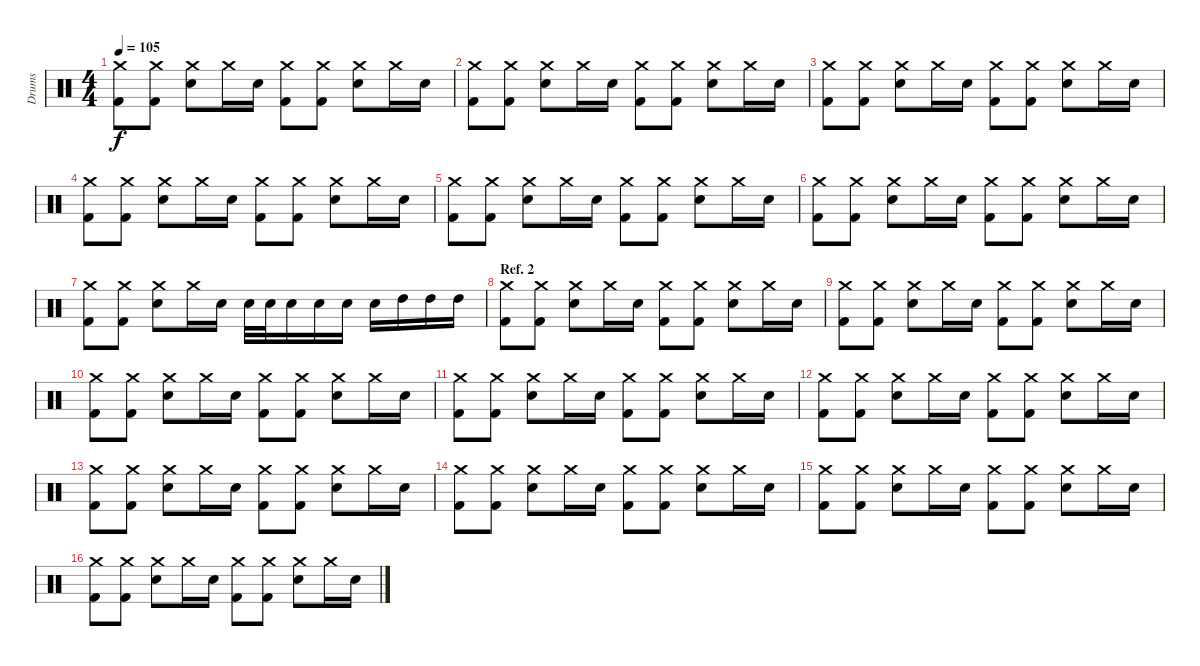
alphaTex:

\track ("Drums" "Drums") {instrument percussion}
\staff {score}
\articulation defaults
\ts (4 4)
\tempo 105
\clef neutral
\ks c
("Kick (hit) 2" "Crash medium (hit)").8{dy f} ("Crash medium (hit)" "Kick (hit) 2").8 ("Crash medium (hit)" "Snare (hit) 2").8 "Crash medium (hit)".16 "Snare (hit) 2".16 ("Crash medium (hit)" "Kick (hit) 2").8 ("Crash medium (hit)" "Kick (hit) 2").8 ("Crash medium (hit)" "Snare (hit) 2").8 "Crash medium (hit)".16 "Snare (hit) 2".16 |
("Kick (hit) 2" "Crash medium (hit)").8 ("Crash medium (hit)" "Kick (hit) 2").8 ("Crash medium (hit)" "Snare (hit) 2").8 "Crash medium (hit)".16 "Snare (hit) 2".16 ("Crash medium (hit)" "Kick (hit) 2").8 ("Crash medium (hit)" "Kick (hit) 2").8 ("Crash medium (hit)" "Snare (hit) 2").8 "Crash medium (hit)".16 "Snare (hit) 2".16 |
("Kick (hit) 2" "Crash medium (hit)").8 ("Crash medium (hit)" "Kick (hit) 2").8 ("Crash medium (hit)" "Snare (hit) 2").8 "Crash medium (hit)".16 "Snare (hit) 2".16 ("Crash medium (hit)" "Kick (hit) 2").8 ("Crash medium (hit)" "Kick (hit) 2").8 ("Crash medium (hit)" "Snare (hit) 2").8 "Crash medium (hit)".16 "Snare (hit) 2".16 |
("Kick (hit) 2" "Crash medium (hit)").8 ("Crash medium (hit)" "Kick (hit) 2").8 ("Crash medium (hit)" "Snare (hit) 2").8 "Crash medium (hit)".16 "Snare (hit) 2".16 ("Crash medium (hit)" "Kick (hit) 2").8 ("Crash medium (hit)" "Kick (hit) 2").8 ("Crash medium (hit)" "Snare (hit) 2").8 "Crash medium (hit)".16 "Snare (hit) 2".16 |
("Kick (hit) 2" "Crash medium (hit)").8 ("Crash medium (hit)" "Kick (hit) 2").8 ("Crash medium (hit)" "Snare (hit) 2").8 "Crash medium (hit)".16 "Snare (hit) 2".16 ("Crash medium (hit)" "Kick (hit) 2").8 ("Crash medium (hit)" "Kick (hit) 2").8 ("Crash medium (hit)" "Snare (hit) 2").8 "Crash medium (hit)".16 "Snare (hit) 2".16 |
("Kick (hit) 2" "Crash medium (hit)").8 ("Crash medium (hit)" "Kick (hit) 2").8 ("Crash medium (hit)" "Snare (hit) 2").8 "Crash medium (hit)".16 "Snare (hit) 2".16 ("Crash medium (hit)" "Kick (hit) 2").8 ("Crash medium (hit)" "Kick (hit) 2").8 ("Crash medium (hit)" "Snare (hit) 2").8 "Crash medium (hit)".16 "Snare (hit) 2".16 |
("Kick (hit) 2" "Crash medium (hit)").8 ("Crash medium (hit)" "Kick (hit) 2").8 ("Crash medium (hit)" "Snare (hit) 2").8 "Crash medium (hit)".16 "Snare (hit) 2".16 "Snare (hit) 2".32 "Snare (hit) 2".32 "Snare (hit) 2".16 "Snare (hit) 2".16 "Snare (hit) 2".16 "Snare (hit) 2".16 "High Tom (hit)".16 "High Tom (hit)".16 "High Tom (hit)".16 |
\section ("" "Ref. 2")
("Kick (hit) 2" "Crash medium (hit)").8 ("Crash medium (hit)" "Kick (hit) 2").8 ("Crash medium (hit)" "Snare (hit) 2").8 "Crash medium (hit)".16 "Snare (hit) 2".16 ("Crash medium (hit)" "Kick (hit) 2").8 ("Crash medium (hit)" "Kick (hit) 2").8 ("Crash medium (hit)" "Snare (hit) 2").8 "Crash medium (hit)".16 "Snare (hit) 2".16 |
("Kick (hit) 2" "Crash medium (hit)").8 ("Crash medium (hit)" "Kick (hit) 2").8 ("Crash medium (hit)" "Snare (hit) 2").8 "Crash medium (hit)".16 "Snare (hit) 2".16 ("Crash medium (hit)" "Kick (hit) 2").8 ("Crash medium (hit)" "Kick (hit) 2").8 ("Crash medium (hit)" "Snare (hit) 2").8 "Crash medium (hit)".16 "Snare (hit) 2".16 |
("Kick (hit) 2" "Crash medium (hit)").8 ("Crash medium (hit)" "Kick (hit) 2").8 ("Crash medium (hit)" "Snare (hit) 2").8 "Crash medium (hit)".16 "Snare (hit) 2".16 ("Crash medium (hit)" "Kick (hit) 2").8 ("Crash medium (hit)" "Kick (hit) 2").8 ("Crash medium (hit)" "Snare (hit) 2").8 "Crash medium (hit)".16 "Snare (hit) 2".16 |
("Kick (hit) 2" "Crash medium (hit)").8 ("Crash medium (hit)" "Kick (hit) 2").8 ("Crash medium (hit)" "Snare (hit) 2").8 "Crash medium (hit)".16 "Snare (hit) 2".16 ("Crash medium (hit)" "Kick (hit) 2").8 ("Crash medium (hit)" "Kick (hit) 2").8 ("Crash medium (hit)" "Snare (hit) 2").8 "Crash medium (hit)".16 "Snare (hit) 2".16 |
("Kick (hit) 2" "Crash medium (hit)").8 ("Crash medium (hit)" "Kick (hit) 2").8 ("Crash medium (hit)" "Snare (hit) 2").8 "Crash medium (hit)".16 "Snare (hit) 2".16 ("Crash medium (hit)" "Kick (hit) 2").8 ("Crash medium (hit)" "Kick (hit) 2").8 ("Crash medium (hit)" "Snare (hit) 2").8 "Crash medium (hit)".16 "Snare (hit) 2".16 |
("Kick (hit) 2" "Crash medium (hit)").8 ("Crash medium (hit)" "Kick (hit) 2").8 ("Crash medium (hit)" "Snare (hit) 2").8 "Crash medium (hit)".16 "Snare (hit) 2".16 ("Crash medium (hit)" "Kick (hit) 2").8 ("Crash medium (hit)" "Kick (hit) 2").8 ("Crash medium (hit)" "Snare (hit) 2").8 "Crash medium (hit)".16 "Snare (hit) 2".16 |
("Kick (hit) 2" "Crash medium (hit)").8 ("Crash medium (hit)" "Kick (hit) 2").8 ("Crash medium (hit)" "Snare (hit) 2").8 "Crash medium (hit)".16 "Snare (hit) 2".16 ("Crash medium (hit)" "Kick (hit) 2").8 ("Crash medium (hit)" "Kick (hit) 2").8 ("Crash medium (hit)" "Snare (hit) 2").8 "Crash medium (hit)".16 "Snare (hit) 2".16 |
("Kick (hit) 2" "Crash medium (hit)").8 ("Crash medium (hit)" "Kick (hit) 2").8 ("Crash medium (hit)" "Snare (hit) 2").8 "Crash medium (hit)".16 "Snare (hit) 2".16 ("Crash medium (hit)" "Kick (hit) 2").8 ("Crash medium (hit)" "Kick (hit) 2").8 ("Crash medium (hit)" "Snare (hit) 2").8 "Crash medium (hit)".16 "Snare (hit) 2".16 |
("Kick (hit) 2" "Crash medium (hit)").8 ("Crash medium (hit)" "Kick (hit) 2").8 ("Crash medium (hit)" "Snare (hit) 2").8 "Crash medium (hit)".16 "Snare (hit) 2".16 ("Crash medium (hit)" "Kick (hit) 2").8 ("Crash medium (hit)" "Kick (hit) 2").8 ("Crash medium (hit)" "Snare (hit) 2").8 "Crash medium (hit)".16 "Snare (hit) 2".16
